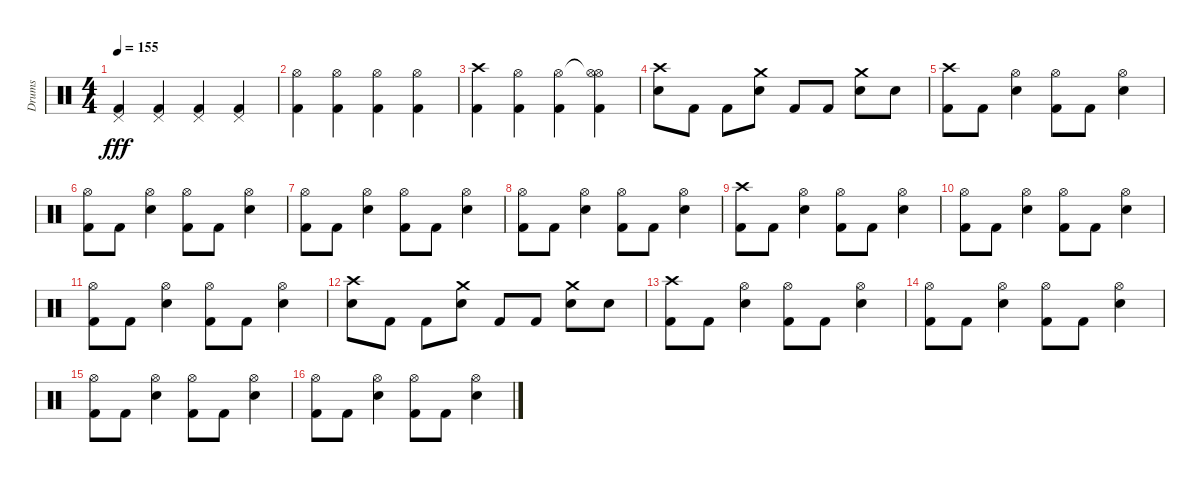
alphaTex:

\track ("Drums" "Drums") {instrument percussion}
\staff {score}
\articulation defaults
\ts (4 4)
\tempo 155
\clef neutral
\ks c
("Pedal Hi-Hat (hit)" "Kick (hit) 2").4{dy fff} ("Pedal Hi-Hat (hit)" "Kick (hit) 2").4 ("Pedal Hi-Hat (hit)" "Kick (hit) 2").4 ("Pedal Hi-Hat (hit)" "Kick (hit) 2").4 |
("Hi-Hat (open)" "Kick (hit) 2").4 ("Hi-Hat (open)" "Kick (hit) 2").4 ("Hi-Hat (open)" "Kick (hit) 2").4 ("Hi-Hat (open)" "Kick (hit) 2").4 |
("Crash high (hit)" "Kick (hit) 2").4 ("Hi-Hat (open)" "Kick (hit) 2").4 ("Hi-Hat (open)" "Kick (hit) 2").4 ("Hi-Hat (open)"{t} "Hi-Hat (open)" "Kick (hit) 2").4 |
("Crash high (hit)" "Electric Snare (hit)").8 "Kick (hit) 2".8 "Kick (hit) 2".8 ("Crash medium (hit)" "Electric Snare (hit)").8 "Kick (hit) 2".8 "Kick (hit) 2".8 ("Crash medium (hit)" "Electric Snare (hit)").8 "Electric Snare (hit)".8 |
("Crash high (hit)" "Kick (hit) 2").8 "Kick (hit) 2".8 ("Hi-Hat (open)" "Electric Snare (hit)").4 ("Hi-Hat (open)" "Kick (hit) 2").8 "Kick (hit) 2".8 ("Hi-Hat (open)" "Electric Snare (hit)").4 |
("Hi-Hat (open)" "Kick (hit) 2").8 "Kick (hit) 2".8 ("Hi-Hat (open)" "Electric Snare (hit)").4 ("Hi-Hat (open)" "Kick (hit) 2").8 "Kick (hit) 2".8 ("Hi-Hat (open)" "Electric Snare (hit)").4 |
("Hi-Hat (open)" "Kick (hit) 2").8 "Kick (hit) 2".8 ("Hi-Hat (open)" "Electric Snare (hit)").4 ("Hi-Hat (open)" "Kick (hit) 2").8 "Kick (hit) 2".8 ("Hi-Hat (open)" "Electric Snare (hit)").4 |
("Hi-Hat (open)" "Kick (hit) 2").8 "Kick (hit) 2".8 ("Hi-Hat (open)" "Electric Snare (hit)").4 ("Hi-Hat (open)" "Kick (hit) 2").8 "Kick (hit) 2".8 ("Hi-Hat (open)" "Electric Snare (hit)").4 |
("Crash high (hit)" "Kick (hit) 2").8 "Kick (hit) 2".8 ("Hi-Hat (open)" "Electric Snare (hit)").4 ("Hi-Hat (open)" "Kick (hit) 2").8 "Kick (hit) 2".8 ("Hi-Hat (open)" "Electric Snare (hit)").4 |
("Hi-Hat (open)" "Kick (hit) 2").8 "Kick (hit) 2".8 ("Hi-Hat (open)" "Electric Snare (hit)").4 ("Hi-Hat (open)" "Kick (hit) 2").8 "Kick (hit) 2".8 ("Hi-Hat (open)" "Electric Snare (hit)").4 |
("Hi-Hat (open)" "Kick (hit) 2").8 "Kick (hit) 2".8 ("Hi-Hat (open)" "Electric Snare (hit)").4 ("Hi-Hat (open)" "Kick (hit) 2").8 "Kick (hit) 2".8 ("Hi-Hat (open)" "Electric Snare (hit)").4 |
("Crash high (hit)" "Electric Snare (hit)").8 "Kick (hit) 2".8 "Kick (hit) 2".8 ("Crash medium (hit)" "Electric Snare (hit)").8 "Kick (hit) 2".8 "Kick (hit) 2".8 ("Crash medium (hit)" "Electric Snare (hit)").8 "Electric Snare (hit)".8 |
("Crash high (hit)" "Kick (hit) 2").8 "Kick (hit) 2".8 ("Hi-Hat (open)" "Electric Snare (hit)").4 ("Hi-Hat (open)" "Kick (hit) 2").8 "Kick (hit) 2".8 ("Hi-Hat (open)" "Electric Snare (hit)").4 |
("Hi-Hat (open)" "Kick (hit) 2").8 "Kick (hit) 2".8 ("Hi-Hat (open)" "Electric Snare (hit)").4 ("Hi-Hat (open)" "Kick (hit) 2").8 "Kick (hit) 2".8 ("Hi-Hat (open)" "Electric Snare (hit)").4 |
("Hi-Hat (open)" "Kick (hit) 2").8 "Kick (hit) 2".8 ("Hi-Hat (open)" "Electric Snare (hit)").4 ("Hi-Hat (open)" "Kick (hit) 2").8 "Kick (hit) 2".8 ("Hi-Hat (open)" "Electric Snare (hit)").4 |
("Hi-Hat (open)" "Kick (hit) 2").8 "Kick (hit) 2".8 ("Hi-Hat (open)" "Electric Snare (hit)").4 ("Hi-Hat (open)" "Kick (hit) 2").8 "Kick (hit) 2".8 ("Hi-Hat (open)" "Electric Snare (hit)").4
